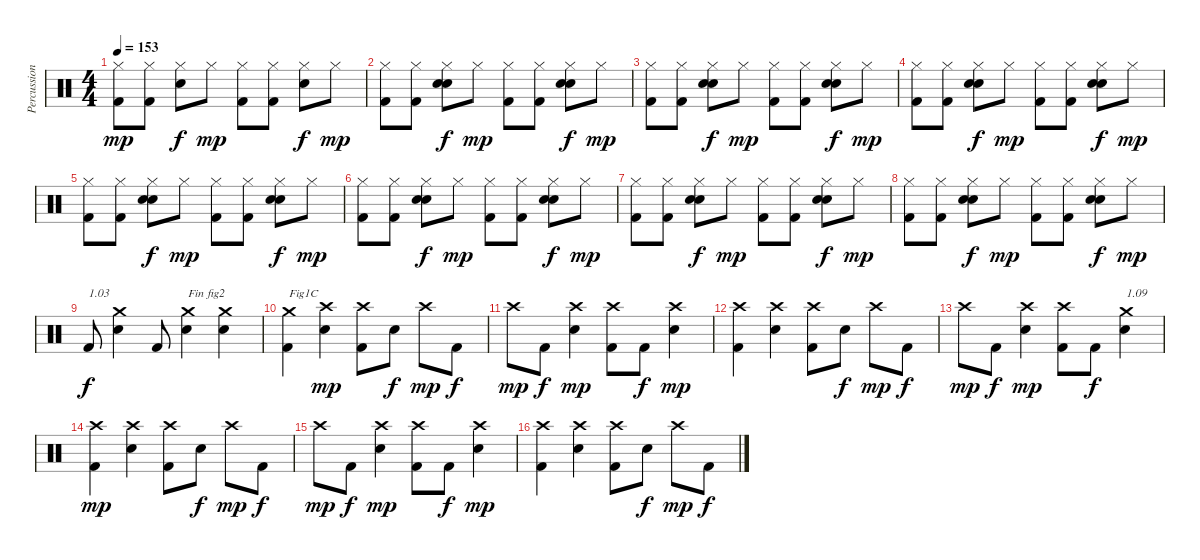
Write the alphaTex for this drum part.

\track ("Percussions" "Percussion") {instrument percussion}
\staff {score}
\articulation defaults
\ts (4 4)
\tempo 153
\clef neutral
\ks c
("Kick (hit) 2" "Hi-Hat (closed)").8{dy mp} ("Kick (hit) 2" "Hi-Hat (closed)").8 ("Electric Snare (hit)" "Hi-Hat (closed)").8{dy f} "Hi-Hat (closed)".8{dy mp} ("Kick (hit) 2" "Hi-Hat (closed)").8 ("Kick (hit) 2" "Hi-Hat (closed)").8 ("Electric Snare (hit)" "Hi-Hat (closed)").8{dy f} "Hi-Hat (closed)".8{dy mp} |
("Kick (hit) 2" "Hi-Hat (closed)").8 ("Kick (hit) 2" "Hi-Hat (closed)").8 ("Snare (hit) 2" "Electric Snare (hit)" "Hi-Hat (closed)").8{dy f} "Hi-Hat (closed)".8{dy mp} ("Kick (hit) 2" "Hi-Hat (closed)").8 ("Kick (hit) 2" "Hi-Hat (closed)").8 ("Snare (hit) 2" "Electric Snare (hit)" "Hi-Hat (closed)").8{dy f} "Hi-Hat (closed)".8{dy mp} |
("Kick (hit) 2" "Hi-Hat (closed)").8 ("Kick (hit) 2" "Hi-Hat (closed)").8 ("Snare (hit) 2" "Electric Snare (hit)" "Hi-Hat (closed)").8{dy f} "Hi-Hat (closed)".8{dy mp} ("Kick (hit) 2" "Hi-Hat (closed)").8 ("Kick (hit) 2" "Hi-Hat (closed)").8 ("Snare (hit) 2" "Electric Snare (hit)" "Hi-Hat (closed)").8{dy f} "Hi-Hat (closed)".8{dy mp} |
("Kick (hit) 2" "Hi-Hat (closed)").8 ("Kick (hit) 2" "Hi-Hat (closed)").8 ("Snare (hit) 2" "Electric Snare (hit)" "Hi-Hat (closed)").8{dy f} "Hi-Hat (closed)".8{dy mp} ("Kick (hit) 2" "Hi-Hat (closed)").8 ("Kick (hit) 2" "Hi-Hat (closed)").8 ("Snare (hit) 2" "Electric Snare (hit)" "Hi-Hat (closed)").8{dy f} "Hi-Hat (closed)".8{dy mp} |
("Kick (hit) 2" "Hi-Hat (closed)").8 ("Kick (hit) 2" "Hi-Hat (closed)").8 ("Snare (hit) 2" "Electric Snare (hit)" "Hi-Hat (closed)").8{dy f} "Hi-Hat (closed)".8{dy mp} ("Kick (hit) 2" "Hi-Hat (closed)").8 ("Kick (hit) 2" "Hi-Hat (closed)").8 ("Snare (hit) 2" "Electric Snare (hit)" "Hi-Hat (closed)").8{dy f} "Hi-Hat (closed)".8{dy mp} |
("Kick (hit) 2" "Hi-Hat (closed)").8 ("Kick (hit) 2" "Hi-Hat (closed)").8 ("Snare (hit) 2" "Electric Snare (hit)" "Hi-Hat (closed)").8{dy f} "Hi-Hat (closed)".8{dy mp} ("Kick (hit) 2" "Hi-Hat (closed)").8 ("Kick (hit) 2" "Hi-Hat (closed)").8 ("Snare (hit) 2" "Electric Snare (hit)" "Hi-Hat (closed)").8{dy f} "Hi-Hat (closed)".8{dy mp} |
("Kick (hit) 2" "Hi-Hat (closed)").8 ("Kick (hit) 2" "Hi-Hat (closed)").8 ("Snare (hit) 2" "Electric Snare (hit)" "Hi-Hat (closed)").8{dy f} "Hi-Hat (closed)".8{dy mp} ("Kick (hit) 2" "Hi-Hat (closed)").8 ("Kick (hit) 2" "Hi-Hat (closed)").8 ("Snare (hit) 2" "Electric Snare (hit)" "Hi-Hat (closed)").8{dy f} "Hi-Hat (closed)".8{dy mp} |
("Kick (hit) 2" "Hi-Hat (closed)").8 ("Kick (hit) 2" "Hi-Hat (closed)").8 ("Snare (hit) 2" "Electric Snare (hit)" "Hi-Hat (closed)").8{dy f} "Hi-Hat (closed)".8{dy mp} ("Kick (hit) 2" "Hi-Hat (closed)").8 ("Kick (hit) 2" "Hi-Hat (closed)").8 ("Snare (hit) 2" "Electric Snare (hit)" "Hi-Hat (closed)").8{dy f} "Hi-Hat (closed)".8{dy mp} |
"Kick (hit) 2".8{txt "1.03" dy f} ("Electric Snare (hit)" "Crash medium (hit)").4 "Kick (hit) 2".8 ("Electric Snare (hit)" "Crash medium (hit)").4{txt "Fin fig2"} ("Electric Snare (hit)" "Crash medium (hit)").4 |
("Kick (hit) 2" "Crash medium (hit)").4{txt "Fig1C"} ("Electric Snare (hit)" "Crash high (hit)").4{dy mp} ("Kick (hit) 2" "Crash high (hit)").8 "Electric Snare (hit)".8{dy f} "Crash high (hit)".8{dy mp} "Kick (hit) 2".8{dy f} |
"Crash high (hit)".8{dy mp} "Kick (hit) 2".8{dy f} ("Electric Snare (hit)" "Crash high (hit)").4{dy mp} ("Kick (hit) 2" "Crash high (hit)").8 "Kick (hit) 2".8{dy f} ("Electric Snare (hit)" "Crash high (hit)").4{dy mp} |
("Kick (hit) 2" "Crash high (hit)").4 ("Electric Snare (hit)" "Crash high (hit)").4 ("Kick (hit) 2" "Crash high (hit)").8 "Electric Snare (hit)".8{dy f} "Crash high (hit)".8{dy mp} "Kick (hit) 2".8{dy f} |
"Crash high (hit)".8{dy mp} "Kick (hit) 2".8{dy f} ("Electric Snare (hit)" "Crash high (hit)").4{dy mp} ("Kick (hit) 2" "Crash high (hit)").8 "Kick (hit) 2".8{dy f} ("Electric Snare (hit)" "Crash medium (hit)").4{txt "1.09"} |
("Kick (hit) 2" "Crash high (hit)").4{dy mp} ("Electric Snare (hit)" "Crash high (hit)").4 ("Kick (hit) 2" "Crash high (hit)").8 "Electric Snare (hit)".8{dy f} "Crash high (hit)".8{dy mp} "Kick (hit) 2".8{dy f} |
"Crash high (hit)".8{dy mp} "Kick (hit) 2".8{dy f} ("Electric Snare (hit)" "Crash high (hit)").4{dy mp} ("Kick (hit) 2" "Crash high (hit)").8 "Kick (hit) 2".8{dy f} ("Electric Snare (hit)" "Crash high (hit)").4{dy mp} |
("Kick (hit) 2" "Crash high (hit)").4 ("Electric Snare (hit)" "Crash high (hit)").4 ("Kick (hit) 2" "Crash high (hit)").8 "Electric Snare (hit)".8{dy f} "Crash high (hit)".8{dy mp} "Kick (hit) 2".8{dy f}
